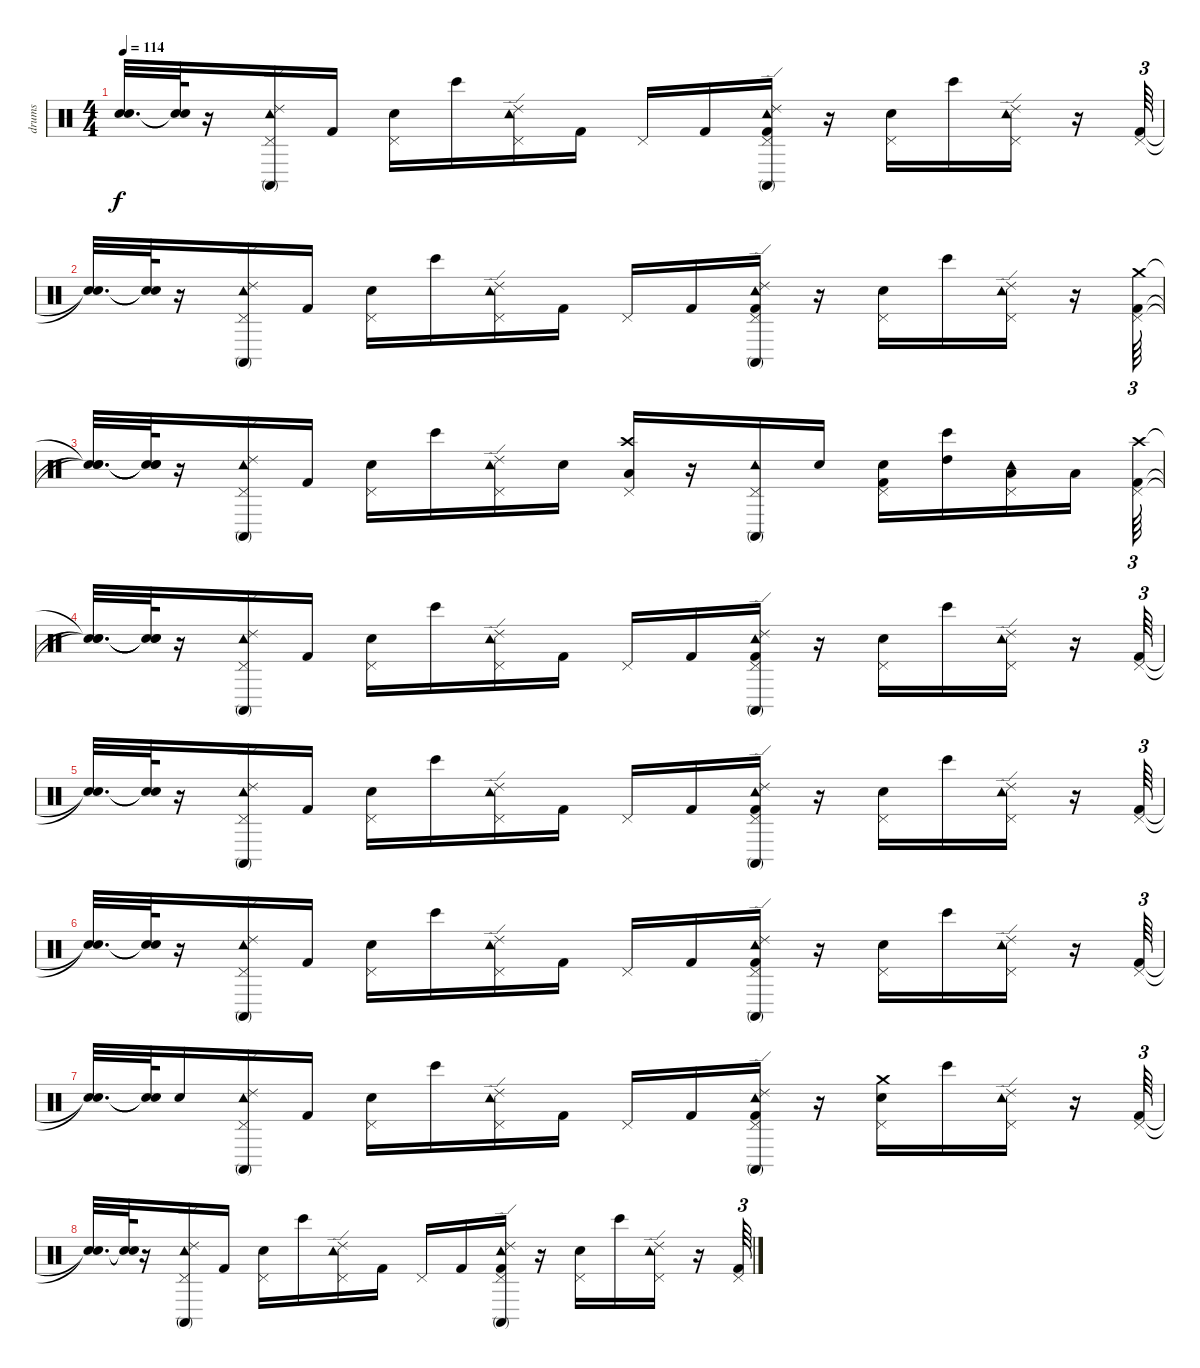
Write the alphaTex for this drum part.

\track ("drums" "drums") {instrument percussion}
\staff {score}
\articulation defaults
\ts (4 4)
\tempo 114
\clef neutral
\ks c
("Snare (hit)"{t} "Snare (hit)"{t}).32{d dy f} ("Snare (hit)"{t} "Snare (hit)"{t}).64 r.16 ("Ride (edge) 2" "Pedal Hi-Hat (hit)" "Tambourine (hit)" "Conga high (mute)").16 "Kick (hit) 2".16 ("Electric Snare (hit)" "Pedal Hi-Hat (hit)").16 "Bongo High (hit)".16 ("Ride (edge) 2" "Pedal Hi-Hat (hit)" "Tambourine (hit)").16 "Kick (hit) 2".16 "Pedal Hi-Hat (hit)".16 "Kick (hit) 2".16 ("Ride (edge) 2" "Kick (hit) 2" "Pedal Hi-Hat (hit)" "Conga high (mute)" "Tambourine (hit)").16 r.16 ("Electric Snare (hit)" "Pedal Hi-Hat (hit)").16 "Bongo High (hit)".16 ("Ride (edge) 2" "Pedal Hi-Hat (hit)" "Tambourine (hit)").16 r.16 ("Kick (hit) 2" "Pedal Hi-Hat (hit)").64{tu (3 2)} |
("Snare (hit)"{t} "Snare (hit)"{t}).32{d} ("Snare (hit)"{t} "Snare (hit)"{t}).64 r.16 ("Ride (edge) 2" "Pedal Hi-Hat (hit)" "Tambourine (hit)" "Conga high (mute)").16 "Kick (hit) 2".16 ("Electric Snare (hit)" "Pedal Hi-Hat (hit)").16 "Bongo High (hit)".16 ("Ride (edge) 2" "Pedal Hi-Hat (hit)" "Tambourine (hit)").16 "Kick (hit) 2".16 "Pedal Hi-Hat (hit)".16 "Kick (hit) 2".16 ("Ride (edge) 2" "Kick (hit) 2" "Pedal Hi-Hat (hit)" "Conga high (mute)" "Tambourine (hit)").16 r.16 ("Electric Snare (hit)" "Pedal Hi-Hat (hit)").16 "Bongo High (hit)".16 ("Ride (edge) 2" "Pedal Hi-Hat (hit)" "Tambourine (hit)").16 r.16 ("Crash medium (hit)" "Kick (hit) 2" "Pedal Hi-Hat (hit)").64{tu (3 2)} |
("Snare (hit)"{t} "Snare (hit)"{t} "Snare (hit)"{t}).32{d} ("Snare (hit)"{t} "Snare (hit)"{t} "Snare (hit)"{t}).64 r.16 ("Ride (edge) 2" "Pedal Hi-Hat (hit)" "Tambourine (hit)" "Conga high (mute)").16 "Kick (hit) 2".16 ("Electric Snare (hit)" "Pedal Hi-Hat (hit)").16 "Bongo High (hit)".16 ("Ride (edge) 2" "Pedal Hi-Hat (hit)" "Tambourine (hit)").16 "Electric Snare (hit)".16 ("Crash high (hit)" "Low Floor Tom (hit)" "Pedal Hi-Hat (hit)").16 r.16 ("Pedal Hi-Hat (hit)" "Conga high (mute)" "Tambourine (hit)").16 "Electric Snare (hit)".16 ("Kick (hit) 2" "Electric Snare (hit)" "Pedal Hi-Hat (hit)").16 ("High Tom (hit)" "Bongo High (hit)").16 ("Low Tom (hit)" "Pedal Hi-Hat (hit)" "Tambourine (hit)").16 "Low Tom (hit)".16 ("Crash high (hit)" "Kick (hit) 2" "Pedal Hi-Hat (hit)").64{tu (3 2)} |
("Snare (hit)"{t} "Snare (hit)"{t} "Snare (hit)"{t}).32{d} ("Snare (hit)"{t} "Snare (hit)"{t} "Snare (hit)"{t}).64 r.16 ("Ride (edge) 2" "Pedal Hi-Hat (hit)" "Tambourine (hit)" "Conga high (mute)").16 "Kick (hit) 2".16 ("Electric Snare (hit)" "Pedal Hi-Hat (hit)").16 "Bongo High (hit)".16 ("Ride (edge) 2" "Pedal Hi-Hat (hit)" "Tambourine (hit)").16 "Kick (hit) 2".16 "Pedal Hi-Hat (hit)".16 "Kick (hit) 2".16 ("Ride (edge) 2" "Kick (hit) 2" "Pedal Hi-Hat (hit)" "Conga high (mute)" "Tambourine (hit)").16 r.16 ("Electric Snare (hit)" "Pedal Hi-Hat (hit)").16 "Bongo High (hit)".16 ("Ride (edge) 2" "Pedal Hi-Hat (hit)" "Tambourine (hit)").16 r.16 ("Kick (hit) 2" "Pedal Hi-Hat (hit)").64{tu (3 2)} |
("Snare (hit)"{t} "Snare (hit)"{t}).32{d} ("Snare (hit)"{t} "Snare (hit)"{t}).64 r.16 ("Ride (edge) 2" "Pedal Hi-Hat (hit)" "Tambourine (hit)" "Conga high (mute)").16 "Kick (hit) 2".16 ("Electric Snare (hit)" "Pedal Hi-Hat (hit)").16 "Bongo High (hit)".16 ("Ride (edge) 2" "Pedal Hi-Hat (hit)" "Tambourine (hit)").16 "Kick (hit) 2".16 "Pedal Hi-Hat (hit)".16 "Kick (hit) 2".16 ("Ride (edge) 2" "Kick (hit) 2" "Pedal Hi-Hat (hit)" "Conga high (mute)" "Tambourine (hit)").16 r.16 ("Electric Snare (hit)" "Pedal Hi-Hat (hit)").16 "Bongo High (hit)".16 ("Ride (edge) 2" "Pedal Hi-Hat (hit)" "Tambourine (hit)").16 r.16 ("Kick (hit) 2" "Pedal Hi-Hat (hit)").64{tu (3 2)} |
("Snare (hit)"{t} "Snare (hit)"{t}).32{d} ("Snare (hit)"{t} "Snare (hit)"{t}).64 r.16 ("Ride (edge) 2" "Pedal Hi-Hat (hit)" "Tambourine (hit)" "Conga high (mute)").16 "Kick (hit) 2".16 ("Electric Snare (hit)" "Pedal Hi-Hat (hit)").16 "Bongo High (hit)".16 ("Ride (edge) 2" "Pedal Hi-Hat (hit)" "Tambourine (hit)").16 "Kick (hit) 2".16 "Pedal Hi-Hat (hit)".16 "Kick (hit) 2".16 ("Ride (edge) 2" "Kick (hit) 2" "Pedal Hi-Hat (hit)" "Conga high (mute)" "Tambourine (hit)").16 r.16 ("Electric Snare (hit)" "Pedal Hi-Hat (hit)").16 "Bongo High (hit)".16 ("Ride (edge) 2" "Pedal Hi-Hat (hit)" "Tambourine (hit)").16 r.16 ("Kick (hit) 2" "Pedal Hi-Hat (hit)").64{tu (3 2)} |
("Snare (hit)"{t} "Snare (hit)"{t}).32{d} ("Snare (hit)"{t} "Snare (hit)"{t}).64 "Electric Snare (hit)".16 ("Ride (edge) 2" "Pedal Hi-Hat (hit)" "Tambourine (hit)" "Conga high (mute)").16 "Kick (hit) 2".16 ("Electric Snare (hit)" "Pedal Hi-Hat (hit)").16 "Bongo High (hit)".16 ("Ride (edge) 2" "Pedal Hi-Hat (hit)" "Tambourine (hit)").16 "Kick (hit) 2".16 "Pedal Hi-Hat (hit)".16 "Kick (hit) 2".16 ("Ride (edge) 2" "Kick (hit) 2" "Pedal Hi-Hat (hit)" "Conga high (mute)" "Tambourine (hit)").16 r.16 ("Crash medium (hit)" "Electric Snare (hit)" "Pedal Hi-Hat (hit)").16 "Bongo High (hit)".16 ("Ride (edge) 2" "Pedal Hi-Hat (hit)" "Tambourine (hit)").16 r.16 ("Kick (hit) 2" "Pedal Hi-Hat (hit)").64{tu (3 2)} |
("Snare (hit)"{t} "Snare (hit)"{t}).32{d} ("Snare (hit)"{t} "Snare (hit)"{t}).64 r.16 ("Ride (edge) 2" "Pedal Hi-Hat (hit)" "Tambourine (hit)" "Conga high (mute)").16 "Kick (hit) 2".16 ("Electric Snare (hit)" "Pedal Hi-Hat (hit)").16 "Bongo High (hit)".16 ("Ride (edge) 2" "Pedal Hi-Hat (hit)" "Tambourine (hit)").16 "Kick (hit) 2".16 "Pedal Hi-Hat (hit)".16 "Kick (hit) 2".16 ("Ride (edge) 2" "Kick (hit) 2" "Pedal Hi-Hat (hit)" "Conga high (mute)" "Tambourine (hit)").16 r.16 ("Electric Snare (hit)" "Pedal Hi-Hat (hit)").16 "Bongo High (hit)".16 ("Ride (edge) 2" "Pedal Hi-Hat (hit)" "Tambourine (hit)").16 r.16 ("Kick (hit) 2" "Pedal Hi-Hat (hit)").64{tu (3 2)}
